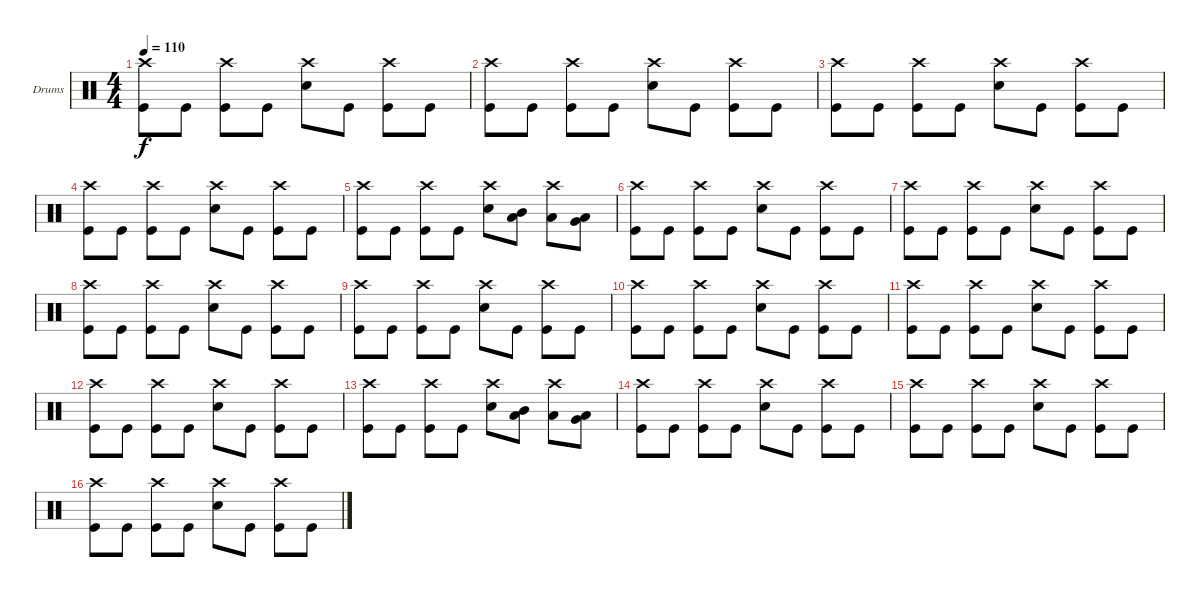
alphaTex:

\defaultSystemsLayout 4
\bracketExtendMode groupsimilarinstruments
\firstSystemTrackNameOrientation horizontal
\otherSystemsTrackNameOrientation horizontal
\track ("Drumkit" "Drums") {instrument percussion}
\staff {score}
\articulation defaults
\ts (4 4)
\tempo 110
\clef neutral
\scale
0.333333
\ks c
("Crash high (hit)" "Kick (hit)").8{dy f} "Kick (hit)".8 ("Crash high (hit)" "Kick (hit)").8 "Kick (hit)".8 ("Crash high (hit)" "Snare (hit) 2").8 "Kick (hit)".8 ("Crash high (hit)" "Kick (hit)").8 "Kick (hit)".8 |
\scale
0.333333 ("Crash high (hit)" "Kick (hit)").8 "Kick (hit)".8 ("Crash high (hit)" "Kick (hit)").8 "Kick (hit)".8 ("Crash high (hit)" "Snare (hit) 2").8 "Kick (hit)".8 ("Crash high (hit)" "Kick (hit)").8 "Kick (hit)".8 |
\scale
0.333333 ("Crash high (hit)" "Kick (hit)").8 "Kick (hit)".8 ("Crash high (hit)" "Kick (hit)").8 "Kick (hit)".8 ("Crash high (hit)" "Snare (hit) 2").8 "Kick (hit)".8 ("Crash high (hit)" "Kick (hit)").8 "Kick (hit)".8 |
\scale
0.333333 ("Crash high (hit)" "Kick (hit)").8 "Kick (hit)".8 ("Crash high (hit)" "Kick (hit)").8 "Kick (hit)".8 ("Crash high (hit)" "Snare (hit) 2").8 "Kick (hit)".8 ("Crash high (hit)" "Kick (hit)").8 "Kick (hit)".8 |
\scale
0.333333 ("Crash high (hit)" "Kick (hit)").8 "Kick (hit)".8 ("Crash high (hit)" "Kick (hit)").8 "Kick (hit)".8 ("Crash high (hit)" "Snare (hit) 2").8 ("Mid Tom (hit)" "Low Tom (hit)").8 ("Crash high (hit)" "Low Tom (hit)").8 ("Low Tom (hit)" "Very Low Tom (hit)").8 |
\scale
0.333333 ("Crash high (hit)" "Kick (hit)").8 "Kick (hit)".8 ("Crash high (hit)" "Kick (hit)").8 "Kick (hit)".8 ("Crash high (hit)" "Snare (hit) 2").8 "Kick (hit)".8 ("Crash high (hit)" "Kick (hit)").8 "Kick (hit)".8 |
\scale
0.333333 ("Crash high (hit)" "Kick (hit)").8 "Kick (hit)".8 ("Crash high (hit)" "Kick (hit)").8 "Kick (hit)".8 ("Crash high (hit)" "Snare (hit) 2").8 "Kick (hit)".8 ("Crash high (hit)" "Kick (hit)").8 "Kick (hit)".8 |
\scale
0.333333 ("Crash high (hit)" "Kick (hit)").8 "Kick (hit)".8 ("Crash high (hit)" "Kick (hit)").8 "Kick (hit)".8 ("Crash high (hit)" "Snare (hit) 2").8 "Kick (hit)".8 ("Crash high (hit)" "Kick (hit)").8 "Kick (hit)".8 |
\scale
0.333333 ("Crash high (hit)" "Kick (hit)").8 "Kick (hit)".8 ("Crash high (hit)" "Kick (hit)").8 "Kick (hit)".8 ("Crash high (hit)" "Snare (hit) 2").8 "Kick (hit)".8 ("Crash high (hit)" "Kick (hit)").8 "Kick (hit)".8 |
\scale
0.333333 ("Crash high (hit)" "Kick (hit)").8 "Kick (hit)".8 ("Crash high (hit)" "Kick (hit)").8 "Kick (hit)".8 ("Crash high (hit)" "Snare (hit) 2").8 "Kick (hit)".8 ("Crash high (hit)" "Kick (hit)").8 "Kick (hit)".8 |
\scale
0.333333 ("Crash high (hit)" "Kick (hit)").8 "Kick (hit)".8 ("Crash high (hit)" "Kick (hit)").8 "Kick (hit)".8 ("Crash high (hit)" "Snare (hit) 2").8 "Kick (hit)".8 ("Crash high (hit)" "Kick (hit)").8 "Kick (hit)".8 |
\scale
0.333333 ("Crash high (hit)" "Kick (hit)").8 "Kick (hit)".8 ("Crash high (hit)" "Kick (hit)").8 "Kick (hit)".8 ("Crash high (hit)" "Snare (hit) 2").8 "Kick (hit)".8 ("Crash high (hit)" "Kick (hit)").8 "Kick (hit)".8 |
\scale
0.333333 ("Crash high (hit)" "Kick (hit)").8 "Kick (hit)".8 ("Crash high (hit)" "Kick (hit)").8 "Kick (hit)".8 ("Crash high (hit)" "Snare (hit) 2").8 ("Mid Tom (hit)" "Low Tom (hit)").8 ("Crash high (hit)" "Low Tom (hit)").8 ("Low Tom (hit)" "Very Low Tom (hit)").8 |
\scale
0.333333 ("Crash high (hit)" "Kick (hit)").8 "Kick (hit)".8 ("Crash high (hit)" "Kick (hit)").8 "Kick (hit)".8 ("Crash high (hit)" "Snare (hit) 2").8 "Kick (hit)".8 ("Crash high (hit)" "Kick (hit)").8 "Kick (hit)".8 |
\scale
0.333333 ("Crash high (hit)" "Kick (hit)").8 "Kick (hit)".8 ("Crash high (hit)" "Kick (hit)").8 "Kick (hit)".8 ("Crash high (hit)" "Snare (hit) 2").8 "Kick (hit)".8 ("Crash high (hit)" "Kick (hit)").8 "Kick (hit)".8 |
\scale
0.333333 ("Crash high (hit)" "Kick (hit)").8 "Kick (hit)".8 ("Crash high (hit)" "Kick (hit)").8 "Kick (hit)".8 ("Crash high (hit)" "Snare (hit) 2").8 "Kick (hit)".8 ("Crash high (hit)" "Kick (hit)").8 "Kick (hit)".8
